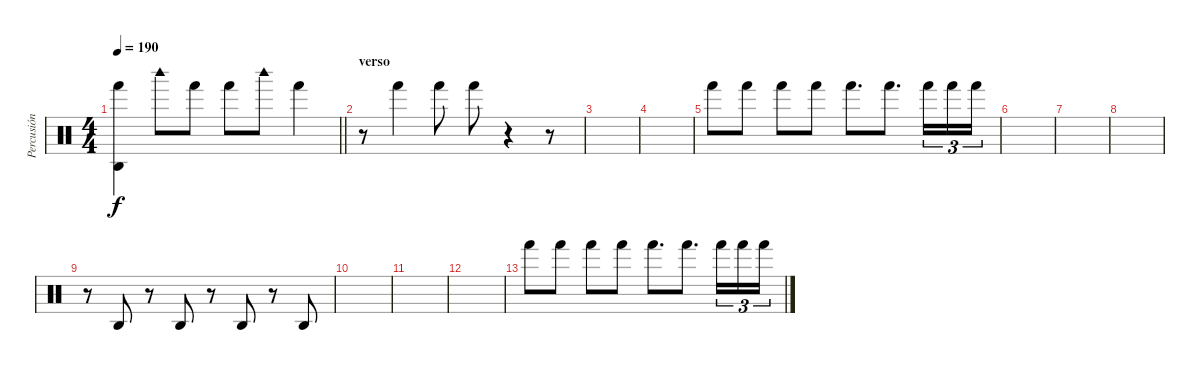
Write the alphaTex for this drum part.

\track ("Percusión" "Percusión") {instrument percussion}
\staff {score}
\articulation defaults
\ts (4 4)
\tempo 190
\clef neutral
\barLineRight lightlight
\ks c
("Hand (hit)" "Agogo high (hit)").4{dy f} "Woodblock high (hit)".8 "Hand (hit)".8 "Hand (hit)".8 "Woodblock high (hit)".8 "Hand (hit)".4 |
\section ("" "verso")
r.8 "Hand (hit)".4 "Hand (hit)".8 "Hand (hit)".8 r.4 r.8 |
|
|
"Hand (hit)".8 "Hand (hit)".8 "Hand (hit)".8 "Hand (hit)".8 "Hand (hit)".8{d} "Hand (hit)".8{d} "Hand (hit)".16{tu (3 2)} "Hand (hit)".16{tu (3 2)} "Hand (hit)".16{tu (3 2)} |
|
|
|
r.8 "Agogo high (hit)".8 r.8 "Agogo high (hit)".8 r.8 "Agogo high (hit)".8 r.8 "Agogo high (hit)".8 |
|
|
|
"Hand (hit)".8 "Hand (hit)".8 "Hand (hit)".8 "Hand (hit)".8 "Hand (hit)".8{d} "Hand (hit)".8{d} "Hand (hit)".16{tu (3 2)} "Hand (hit)".16{tu (3 2)} "Hand (hit)".16{tu (3 2)}
